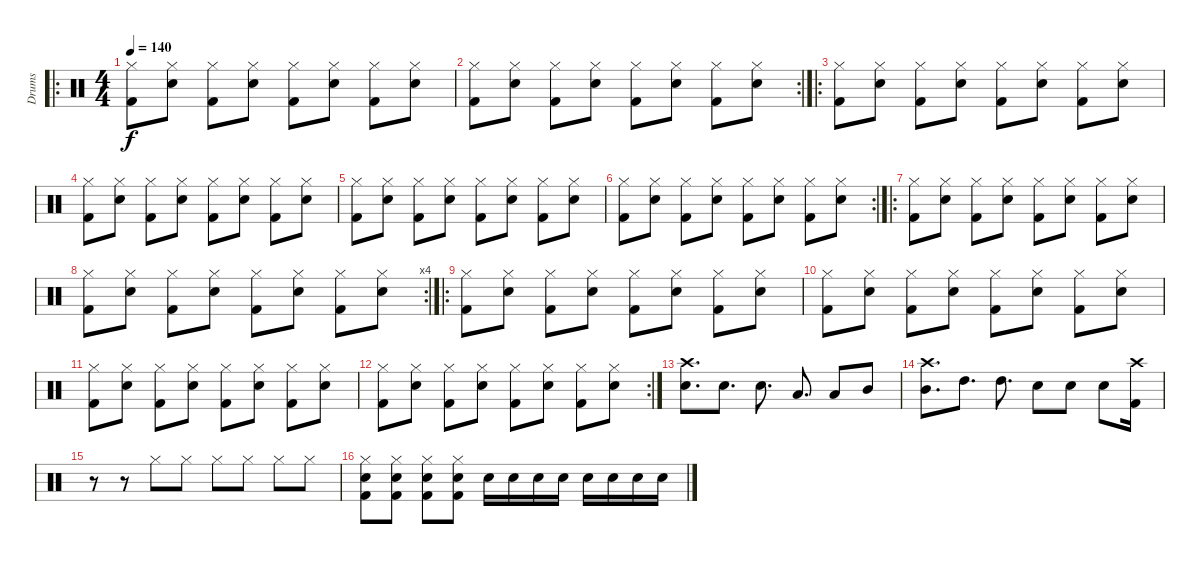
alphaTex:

\track ("Drums" "Drums") {instrument percussion}
\staff {score}
\articulation defaults
\ro
\ts (4 4)
\tempo 140
\clef neutral
\ks c
("Hi-Hat (closed)" "Kick (hit) 2").8{dy f} ("Hi-Hat (closed)" "Snare (hit) 2").8 ("Hi-Hat (closed)" "Kick (hit) 2").8 ("Hi-Hat (closed)" "Snare (hit) 2").8 ("Hi-Hat (closed)" "Kick (hit) 2").8 ("Hi-Hat (closed)" "Snare (hit) 2").8 ("Hi-Hat (closed)" "Kick (hit) 2").8 ("Hi-Hat (closed)" "Snare (hit) 2").8 |
\rc 2
("Hi-Hat (closed)" "Kick (hit) 2").8 ("Hi-Hat (closed)" "Snare (hit) 2").8 ("Hi-Hat (closed)" "Kick (hit) 2").8 ("Hi-Hat (closed)" "Snare (hit) 2").8 ("Hi-Hat (closed)" "Kick (hit) 2").8 ("Hi-Hat (closed)" "Snare (hit) 2").8 ("Hi-Hat (closed)" "Kick (hit) 2").8 ("Hi-Hat (closed)" "Snare (hit) 2").8 |
\ro
("Hi-Hat (closed)" "Kick (hit) 2").8 ("Hi-Hat (closed)" "Snare (hit) 2").8 ("Hi-Hat (closed)" "Kick (hit) 2").8 ("Hi-Hat (closed)" "Snare (hit) 2").8 ("Hi-Hat (closed)" "Kick (hit) 2").8 ("Hi-Hat (closed)" "Snare (hit) 2").8 ("Hi-Hat (closed)" "Kick (hit) 2").8 ("Hi-Hat (closed)" "Snare (hit) 2").8 |
("Hi-Hat (closed)" "Kick (hit) 2").8 ("Hi-Hat (closed)" "Snare (hit) 2").8 ("Hi-Hat (closed)" "Kick (hit) 2").8 ("Hi-Hat (closed)" "Snare (hit) 2").8 ("Hi-Hat (closed)" "Kick (hit) 2").8 ("Hi-Hat (closed)" "Snare (hit) 2").8 ("Hi-Hat (closed)" "Kick (hit) 2").8 ("Hi-Hat (closed)" "Snare (hit) 2").8 |
("Hi-Hat (closed)" "Kick (hit) 2").8 ("Hi-Hat (closed)" "Snare (hit) 2").8 ("Hi-Hat (closed)" "Kick (hit) 2").8 ("Hi-Hat (closed)" "Snare (hit) 2").8 ("Hi-Hat (closed)" "Kick (hit) 2").8 ("Hi-Hat (closed)" "Snare (hit) 2").8 ("Hi-Hat (closed)" "Kick (hit) 2").8 ("Hi-Hat (closed)" "Snare (hit) 2").8 |
\rc 2
("Hi-Hat (closed)" "Kick (hit) 2").8 ("Hi-Hat (closed)" "Snare (hit) 2").8 ("Hi-Hat (closed)" "Kick (hit) 2").8 ("Hi-Hat (closed)" "Snare (hit) 2").8 ("Hi-Hat (closed)" "Kick (hit) 2").8 ("Hi-Hat (closed)" "Snare (hit) 2").8 ("Hi-Hat (closed)" "Kick (hit) 2").8 ("Hi-Hat (closed)" "Snare (hit) 2").8 |
\ro
("Hi-Hat (closed)" "Kick (hit) 2").8 ("Hi-Hat (closed)" "Snare (hit) 2").8 ("Hi-Hat (closed)" "Kick (hit) 2").8 ("Hi-Hat (closed)" "Snare (hit) 2").8 ("Hi-Hat (closed)" "Kick (hit) 2").8 ("Hi-Hat (closed)" "Snare (hit) 2").8 ("Hi-Hat (closed)" "Kick (hit) 2").8 ("Hi-Hat (closed)" "Snare (hit) 2").8 |
\rc 4
("Hi-Hat (closed)" "Kick (hit) 2").8 ("Hi-Hat (closed)" "Snare (hit) 2").8 ("Hi-Hat (closed)" "Kick (hit) 2").8 ("Hi-Hat (closed)" "Snare (hit) 2").8 ("Hi-Hat (closed)" "Kick (hit) 2").8 ("Hi-Hat (closed)" "Snare (hit) 2").8 ("Hi-Hat (closed)" "Kick (hit) 2").8 ("Hi-Hat (closed)" "Snare (hit) 2").8 |
\ro
("Hi-Hat (closed)" "Kick (hit) 2").8 ("Hi-Hat (closed)" "Snare (hit) 2").8 ("Hi-Hat (closed)" "Kick (hit) 2").8 ("Hi-Hat (closed)" "Snare (hit) 2").8 ("Hi-Hat (closed)" "Kick (hit) 2").8 ("Hi-Hat (closed)" "Snare (hit) 2").8 ("Hi-Hat (closed)" "Kick (hit) 2").8 ("Hi-Hat (closed)" "Snare (hit) 2").8 |
("Hi-Hat (closed)" "Kick (hit) 2").8 ("Hi-Hat (closed)" "Snare (hit) 2").8 ("Hi-Hat (closed)" "Kick (hit) 2").8 ("Hi-Hat (closed)" "Snare (hit) 2").8 ("Hi-Hat (closed)" "Kick (hit) 2").8 ("Hi-Hat (closed)" "Snare (hit) 2").8 ("Hi-Hat (closed)" "Kick (hit) 2").8 ("Hi-Hat (closed)" "Snare (hit) 2").8 |
("Hi-Hat (closed)" "Kick (hit) 2").8 ("Hi-Hat (closed)" "Snare (hit) 2").8 ("Hi-Hat (closed)" "Kick (hit) 2").8 ("Hi-Hat (closed)" "Snare (hit) 2").8 ("Hi-Hat (closed)" "Kick (hit) 2").8 ("Hi-Hat (closed)" "Snare (hit) 2").8 ("Hi-Hat (closed)" "Kick (hit) 2").8 ("Hi-Hat (closed)" "Snare (hit) 2").8 |
\rc 2
("Hi-Hat (closed)" "Kick (hit) 2").8 ("Hi-Hat (closed)" "Snare (hit) 2").8 ("Hi-Hat (closed)" "Kick (hit) 2").8 ("Hi-Hat (closed)" "Snare (hit) 2").8 ("Hi-Hat (closed)" "Kick (hit) 2").8 ("Hi-Hat (closed)" "Snare (hit) 2").8 ("Hi-Hat (closed)" "Kick (hit) 2").8 ("Hi-Hat (closed)" "Snare (hit) 2").8 |
("Crash high (hit)" "Snare (hit) 2").8{d} "Snare (hit) 2".8{d} "Snare (hit) 2".8{d} "Low Tom (hit)".8{d} "Low Tom (hit)".8 "Mid Tom (hit)".8 |
("Crash high (hit)" "Mid Tom (hit)").8{d} "High Tom (hit)".8{d} "High Tom (hit)".8{d} "Snare (hit) 2".8 "Snare (hit) 2".8 "Snare (hit) 2".8 ("Crash high (hit)" "Kick (hit) 2").16 |
r.8 r.8 "Hi-Hat (closed)".8 "Hi-Hat (closed)".8 "Hi-Hat (closed)".8 "Hi-Hat (closed)".8 "Hi-Hat (closed)".8 "Hi-Hat (closed)".8 |
("Hi-Hat (closed)" "Kick (hit) 2" "Snare (hit) 2").8 ("Hi-Hat (closed)" "Kick (hit) 2" "Snare (hit) 2").8 ("Hi-Hat (closed)" "Kick (hit) 2" "Snare (hit) 2").8 ("Hi-Hat (closed)" "Kick (hit) 2" "Snare (hit) 2").8 "Snare (hit) 2".16 "Snare (hit) 2".16 "Snare (hit) 2".16 "Snare (hit) 2".16 "Snare (hit) 2".16 "Snare (hit) 2".16 "Snare (hit) 2".16 "Snare (hit) 2".16
